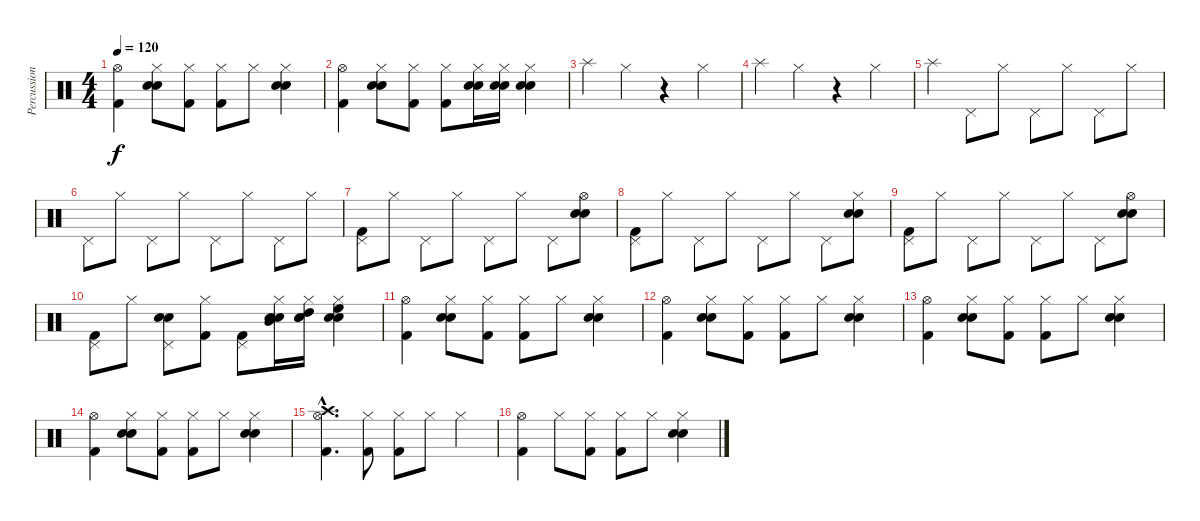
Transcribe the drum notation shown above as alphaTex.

\track ("Percussions" "Percussion") {instrument percussion}
\staff {score}
\articulation defaults
\ts (4 4)
\tempo 120
\clef neutral
\ks c
("Hi-Hat (open)" "Kick (hit) 2").4{dy f} ("Hi-Hat (closed)" "Electric Snare (hit)" "Snare (hit) 2").8 ("Hi-Hat (closed)" "Kick (hit) 2").8 ("Hi-Hat (closed)" "Kick (hit) 2").8 "Hi-Hat (closed)".8 ("Hi-Hat (closed)" "Electric Snare (hit)" "Snare (hit) 2").4 |
("Hi-Hat (open)" "Kick (hit) 2").4 ("Hi-Hat (closed)" "Electric Snare (hit)" "Snare (hit) 2").8 ("Hi-Hat (closed)" "Kick (hit) 2").8 ("Hi-Hat (closed)" "Kick (hit) 2").8 ("Hi-Hat (closed)" "Electric Snare (hit)" "Snare (hit) 2").16 ("Hi-Hat (closed)" "Electric Snare (hit)" "Snare (hit) 2").16 ("Hi-Hat (closed)" "Electric Snare (hit)" "Snare (hit) 2").4 |
"Splash (hit)".4 "Hi-Hat (closed)".4 r.4 "Hi-Hat (closed)".4 |
"Splash (hit)".4 "Hi-Hat (closed)".4 r.4 "Hi-Hat (closed)".4 |
"Splash (hit)".4 "Pedal Hi-Hat (hit)".8 "Hi-Hat (closed)".8 "Pedal Hi-Hat (hit)".8 "Hi-Hat (closed)".8 "Pedal Hi-Hat (hit)".8 "Hi-Hat (closed)".8 |
"Pedal Hi-Hat (hit)".8 "Hi-Hat (closed)".8 "Pedal Hi-Hat (hit)".8 "Hi-Hat (closed)".8 "Pedal Hi-Hat (hit)".8 "Hi-Hat (closed)".8 "Pedal Hi-Hat (hit)".8 "Hi-Hat (closed)".8 |
("Pedal Hi-Hat (hit)" "Kick (hit) 2").8 "Hi-Hat (closed)".8 "Pedal Hi-Hat (hit)".8 "Hi-Hat (closed)".8 "Pedal Hi-Hat (hit)".8 "Hi-Hat (closed)".8 "Pedal Hi-Hat (hit)".8 ("Hi-Hat (open)" "Electric Snare (hit)" "Snare (hit) 2").8 |
("Pedal Hi-Hat (hit)" "Kick (hit) 2").8 "Hi-Hat (closed)".8 "Pedal Hi-Hat (hit)".8 "Hi-Hat (closed)".8 "Pedal Hi-Hat (hit)".8 "Hi-Hat (closed)".8 "Pedal Hi-Hat (hit)".8 ("Hi-Hat (closed)" "Electric Snare (hit)" "Snare (hit) 2").8 |
("Pedal Hi-Hat (hit)" "Kick (hit) 2").8 "Hi-Hat (closed)".8 "Pedal Hi-Hat (hit)".8 "Hi-Hat (closed)".8 "Pedal Hi-Hat (hit)".8 "Hi-Hat (closed)".8 "Pedal Hi-Hat (hit)".8 ("Hi-Hat (open)" "Electric Snare (hit)" "Snare (hit) 2").8 |
("Pedal Hi-Hat (hit)" "Kick (hit) 2").8 "Hi-Hat (closed)".8 ("Pedal Hi-Hat (hit)" "Electric Snare (hit)" "Snare (hit) 2").8 ("Hi-Hat (closed)" "Kick (hit) 2").8 ("Pedal Hi-Hat (hit)" "Kick (hit) 2").8 ("Hi-Hat (closed)" "Mid Tom (hit)" "Electric Snare (hit)" "Snare (hit) 2").16 ("Hi-Hat (closed)" "High Tom (hit)" "Electric Snare (hit)" "Snare (hit) 2").16 ("Hi-Hat (closed)" "High Floor Tom (hit)" "Electric Snare (hit)" "Snare (hit) 2").4 |
("Hi-Hat (open)" "Kick (hit) 2").4 ("Hi-Hat (closed)" "Electric Snare (hit)" "Snare (hit) 2").8 ("Hi-Hat (closed)" "Kick (hit) 2").8 ("Hi-Hat (closed)" "Kick (hit) 2").8 "Hi-Hat (closed)".8 ("Hi-Hat (closed)" "Electric Snare (hit)" "Snare (hit) 2").4 |
("Hi-Hat (open)" "Kick (hit) 2").4 ("Hi-Hat (closed)" "Electric Snare (hit)" "Snare (hit) 2").8 ("Hi-Hat (closed)" "Kick (hit) 2").8 ("Hi-Hat (closed)" "Kick (hit) 2").8 "Hi-Hat (closed)".8 ("Hi-Hat (closed)" "Electric Snare (hit)" "Snare (hit) 2").4 |
("Hi-Hat (open)" "Kick (hit) 2").4 ("Hi-Hat (closed)" "Electric Snare (hit)" "Snare (hit) 2").8 ("Hi-Hat (closed)" "Kick (hit) 2").8 ("Hi-Hat (closed)" "Kick (hit) 2").8 "Hi-Hat (closed)".8 ("Hi-Hat (closed)" "Electric Snare (hit)" "Snare (hit) 2").4 |
("Hi-Hat (open)" "Kick (hit) 2").4 ("Hi-Hat (closed)" "Electric Snare (hit)" "Snare (hit) 2").8 ("Hi-Hat (closed)" "Kick (hit) 2").8 ("Hi-Hat (closed)" "Kick (hit) 2").8 "Hi-Hat (closed)".8 ("Hi-Hat (closed)" "Electric Snare (hit)" "Snare (hit) 2").4 |
("Hi-Hat (open)"{hac} "Crash high (hit)"{hac} "Kick (hit) 2"{hac}).4{d} ("Hi-Hat (closed)" "Kick (hit) 2").8 ("Hi-Hat (closed)" "Kick (hit) 2").8 "Hi-Hat (closed)".8 "Hi-Hat (closed)".4 |
("Hi-Hat (open)" "Kick (hit) 2").4 "Hi-Hat (closed)".8 ("Hi-Hat (closed)" "Kick (hit) 2").8 ("Hi-Hat (closed)" "Kick (hit) 2").8 "Hi-Hat (closed)".8 ("Hi-Hat (closed)" "Electric Snare (hit)" "Snare (hit) 2").4
